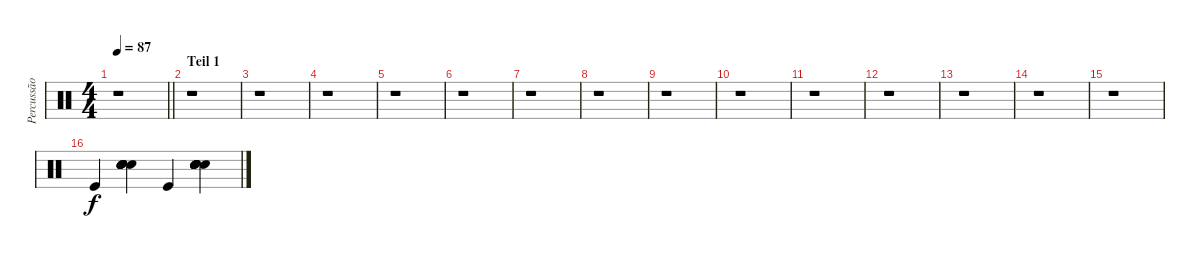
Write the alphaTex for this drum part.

\track ("Percussão" "Percussão") {instrument percussion}
\staff {score}
\articulation defaults
\ts (4 4)
\tempo 87
\clef neutral
\barLineRight lightlight
\ks c
r.1{dy f} |
\section ("" "Teil 1")
r.1 |
r.1 |
r.1 |
r.1 |
r.1 |
r.1 |
r.1 |
r.1 |
r.1 |
r.1 |
r.1 |
r.1 |
r.1 |
r.1 |
"Kick (hit)".4 ("Snare (hit) 2" "Snare (hit) 2" "Snare (hit) 2" "Snare (hit) 2" "Snare (hit) 2" "Snare (hit) 2").4 "Kick (hit)".4 ("Snare (hit) 2" "Snare (hit) 2" "Snare (hit) 2" "Snare (hit) 2" "Snare (hit) 2" "Snare (hit) 2").4
